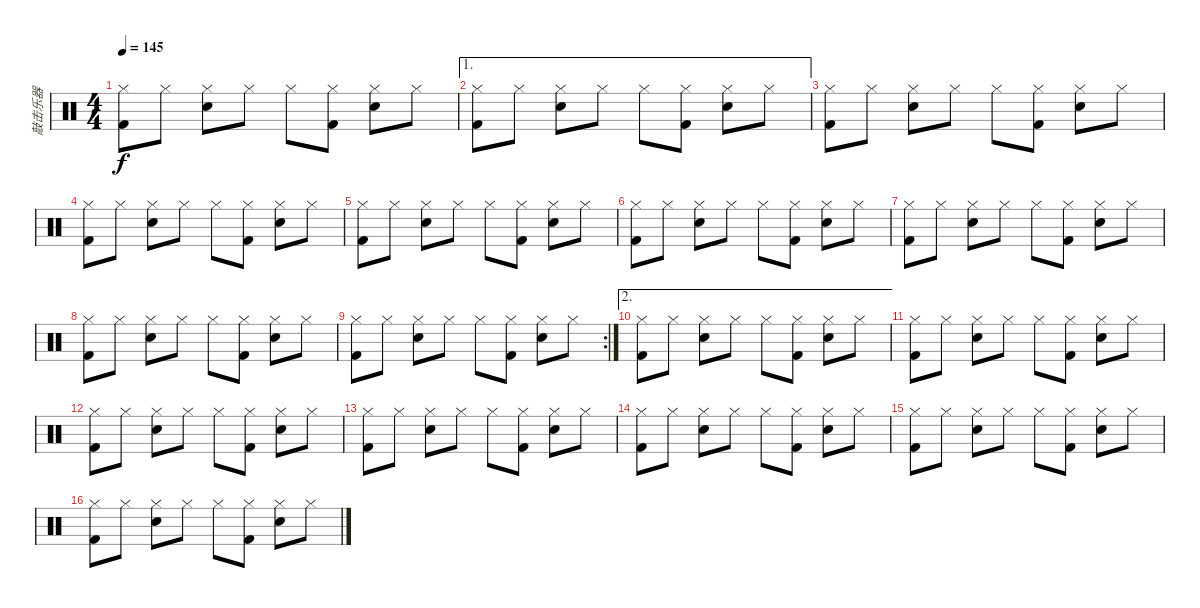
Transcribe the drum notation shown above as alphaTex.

\track ("敲击乐器" "敲击乐器") {instrument percussion}
\staff {score}
\articulation defaults
\ts (4 4)
\tempo 145
\clef neutral
\ks c
("Hi-Hat (closed)" "Kick (hit) 2").8{dy f} "Hi-Hat (closed)".8 ("Hi-Hat (closed)" "Snare (hit) 2").8 "Hi-Hat (closed)".8 "Hi-Hat (closed)".8 ("Hi-Hat (closed)" "Kick (hit) 2").8 ("Hi-Hat (closed)" "Snare (hit) 2").8 "Hi-Hat (closed)".8 |
\ae 1
("Hi-Hat (closed)" "Kick (hit) 2").8 "Hi-Hat (closed)".8 ("Hi-Hat (closed)" "Snare (hit) 2").8 "Hi-Hat (closed)".8 "Hi-Hat (closed)".8 ("Hi-Hat (closed)" "Kick (hit) 2").8 ("Hi-Hat (closed)" "Snare (hit) 2").8 "Hi-Hat (closed)".8 |
("Hi-Hat (closed)" "Kick (hit) 2").8 "Hi-Hat (closed)".8 ("Hi-Hat (closed)" "Snare (hit) 2").8 "Hi-Hat (closed)".8 "Hi-Hat (closed)".8 ("Hi-Hat (closed)" "Kick (hit) 2").8 ("Hi-Hat (closed)" "Snare (hit) 2").8 "Hi-Hat (closed)".8 |
("Hi-Hat (closed)" "Kick (hit) 2").8 "Hi-Hat (closed)".8 ("Hi-Hat (closed)" "Snare (hit) 2").8 "Hi-Hat (closed)".8 "Hi-Hat (closed)".8 ("Hi-Hat (closed)" "Kick (hit) 2").8 ("Hi-Hat (closed)" "Snare (hit) 2").8 "Hi-Hat (closed)".8 |
("Hi-Hat (closed)" "Kick (hit) 2").8 "Hi-Hat (closed)".8 ("Hi-Hat (closed)" "Snare (hit) 2").8 "Hi-Hat (closed)".8 "Hi-Hat (closed)".8 ("Hi-Hat (closed)" "Kick (hit) 2").8 ("Hi-Hat (closed)" "Snare (hit) 2").8 "Hi-Hat (closed)".8 |
("Hi-Hat (closed)" "Kick (hit) 2").8 "Hi-Hat (closed)".8 ("Hi-Hat (closed)" "Snare (hit) 2").8 "Hi-Hat (closed)".8 "Hi-Hat (closed)".8 ("Hi-Hat (closed)" "Kick (hit) 2").8 ("Hi-Hat (closed)" "Snare (hit) 2").8 "Hi-Hat (closed)".8 |
("Hi-Hat (closed)" "Kick (hit) 2").8 "Hi-Hat (closed)".8 ("Hi-Hat (closed)" "Snare (hit) 2").8 "Hi-Hat (closed)".8 "Hi-Hat (closed)".8 ("Hi-Hat (closed)" "Kick (hit) 2").8 ("Hi-Hat (closed)" "Snare (hit) 2").8 "Hi-Hat (closed)".8 |
("Hi-Hat (closed)" "Kick (hit) 2").8 "Hi-Hat (closed)".8 ("Hi-Hat (closed)" "Snare (hit) 2").8 "Hi-Hat (closed)".8 "Hi-Hat (closed)".8 ("Hi-Hat (closed)" "Kick (hit) 2").8 ("Hi-Hat (closed)" "Snare (hit) 2").8 "Hi-Hat (closed)".8 |
\rc 2
("Hi-Hat (closed)" "Kick (hit) 2").8 "Hi-Hat (closed)".8 ("Hi-Hat (closed)" "Snare (hit) 2").8 "Hi-Hat (closed)".8 "Hi-Hat (closed)".8 ("Hi-Hat (closed)" "Kick (hit) 2").8 ("Hi-Hat (closed)" "Snare (hit) 2").8 "Hi-Hat (closed)".8 |
\ae 2
("Hi-Hat (closed)" "Kick (hit) 2").8 "Hi-Hat (closed)".8 ("Hi-Hat (closed)" "Snare (hit) 2").8 "Hi-Hat (closed)".8 "Hi-Hat (closed)".8 ("Hi-Hat (closed)" "Kick (hit) 2").8 ("Hi-Hat (closed)" "Snare (hit) 2").8 "Hi-Hat (closed)".8 |
("Hi-Hat (closed)" "Kick (hit) 2").8 "Hi-Hat (closed)".8 ("Hi-Hat (closed)" "Snare (hit) 2").8 "Hi-Hat (closed)".8 "Hi-Hat (closed)".8 ("Hi-Hat (closed)" "Kick (hit) 2").8 ("Hi-Hat (closed)" "Snare (hit) 2").8 "Hi-Hat (closed)".8 |
("Hi-Hat (closed)" "Kick (hit) 2").8 "Hi-Hat (closed)".8 ("Hi-Hat (closed)" "Snare (hit) 2").8 "Hi-Hat (closed)".8 "Hi-Hat (closed)".8 ("Hi-Hat (closed)" "Kick (hit) 2").8 ("Hi-Hat (closed)" "Snare (hit) 2").8 "Hi-Hat (closed)".8 |
("Hi-Hat (closed)" "Kick (hit) 2").8 "Hi-Hat (closed)".8 ("Hi-Hat (closed)" "Snare (hit) 2").8 "Hi-Hat (closed)".8 "Hi-Hat (closed)".8 ("Hi-Hat (closed)" "Kick (hit) 2").8 ("Hi-Hat (closed)" "Snare (hit) 2").8 "Hi-Hat (closed)".8 |
("Hi-Hat (closed)" "Kick (hit) 2").8 "Hi-Hat (closed)".8 ("Hi-Hat (closed)" "Snare (hit) 2").8 "Hi-Hat (closed)".8 "Hi-Hat (closed)".8 ("Hi-Hat (closed)" "Kick (hit) 2").8 ("Hi-Hat (closed)" "Snare (hit) 2").8 "Hi-Hat (closed)".8 |
("Hi-Hat (closed)" "Kick (hit) 2").8 "Hi-Hat (closed)".8 ("Hi-Hat (closed)" "Snare (hit) 2").8 "Hi-Hat (closed)".8 "Hi-Hat (closed)".8 ("Hi-Hat (closed)" "Kick (hit) 2").8 ("Hi-Hat (closed)" "Snare (hit) 2").8 "Hi-Hat (closed)".8 |
("Hi-Hat (closed)" "Kick (hit) 2").8 "Hi-Hat (closed)".8 ("Hi-Hat (closed)" "Snare (hit) 2").8 "Hi-Hat (closed)".8 "Hi-Hat (closed)".8 ("Hi-Hat (closed)" "Kick (hit) 2").8 ("Hi-Hat (closed)" "Snare (hit) 2").8 "Hi-Hat (closed)".8
